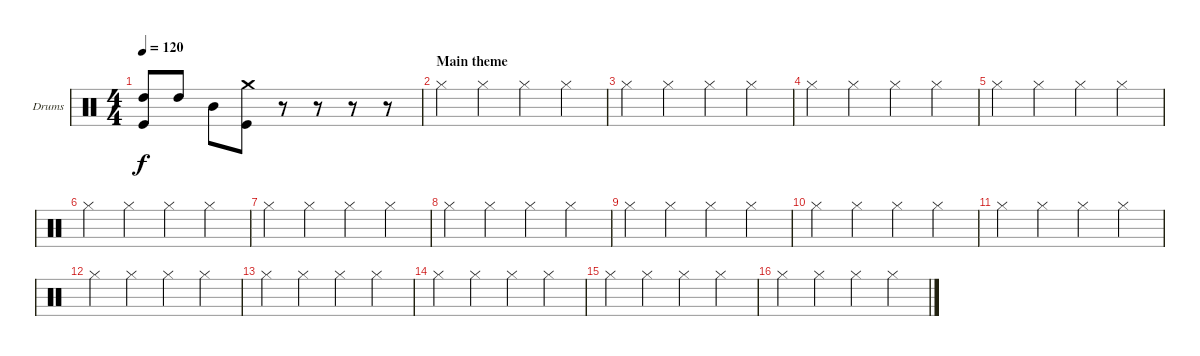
\bracketExtendMode groupsimilarinstruments
\firstSystemTrackNameOrientation horizontal
\otherSystemsTrackNameOrientation horizontal
\track ("Drumkit" "Drums") {instrument percussion}
\staff {score}
\articulation defaults
\ts (4 4)
\tempo 120
\clef neutral
\ks c
("High Tom (hit)" "Kick (hit)").8{dy f} "High Tom (hit)".8 "Mid Tom (hit)".8 ("Crash medium (hit)" "Kick (hit)").8 r.8 r.8 r.8 r.8 |
\section ("" "Main theme")
"Hi-Hat (closed)".4 "Hi-Hat (closed)".4 "Hi-Hat (closed)".4 "Hi-Hat (closed)".4 |
"Hi-Hat (closed)".4 "Hi-Hat (closed)".4 "Hi-Hat (closed)".4 "Hi-Hat (closed)".4 |
"Hi-Hat (closed)".4 "Hi-Hat (closed)".4 "Hi-Hat (closed)".4 "Hi-Hat (closed)".4 |
"Hi-Hat (closed)".4 "Hi-Hat (closed)".4 "Hi-Hat (closed)".4 "Hi-Hat (closed)".4 |
"Hi-Hat (closed)".4 "Hi-Hat (closed)".4 "Hi-Hat (closed)".4 "Hi-Hat (closed)".4 |
"Hi-Hat (closed)".4 "Hi-Hat (closed)".4 "Hi-Hat (closed)".4 "Hi-Hat (closed)".4 |
"Hi-Hat (closed)".4 "Hi-Hat (closed)".4 "Hi-Hat (closed)".4 "Hi-Hat (closed)".4 |
"Hi-Hat (closed)".4 "Hi-Hat (closed)".4 "Hi-Hat (closed)".4 "Hi-Hat (closed)".4 |
"Hi-Hat (closed)".4 "Hi-Hat (closed)".4 "Hi-Hat (closed)".4 "Hi-Hat (closed)".4 |
"Hi-Hat (closed)".4 "Hi-Hat (closed)".4 "Hi-Hat (closed)".4 "Hi-Hat (closed)".4 |
"Hi-Hat (closed)".4 "Hi-Hat (closed)".4 "Hi-Hat (closed)".4 "Hi-Hat (closed)".4 |
"Hi-Hat (closed)".4 "Hi-Hat (closed)".4 "Hi-Hat (closed)".4 "Hi-Hat (closed)".4 |
"Hi-Hat (closed)".4 "Hi-Hat (closed)".4 "Hi-Hat (closed)".4 "Hi-Hat (closed)".4 |
"Hi-Hat (closed)".4 "Hi-Hat (closed)".4 "Hi-Hat (closed)".4 "Hi-Hat (closed)".4 |
"Hi-Hat (closed)".4 "Hi-Hat (closed)".4 "Hi-Hat (closed)".4 "Hi-Hat (closed)".4
